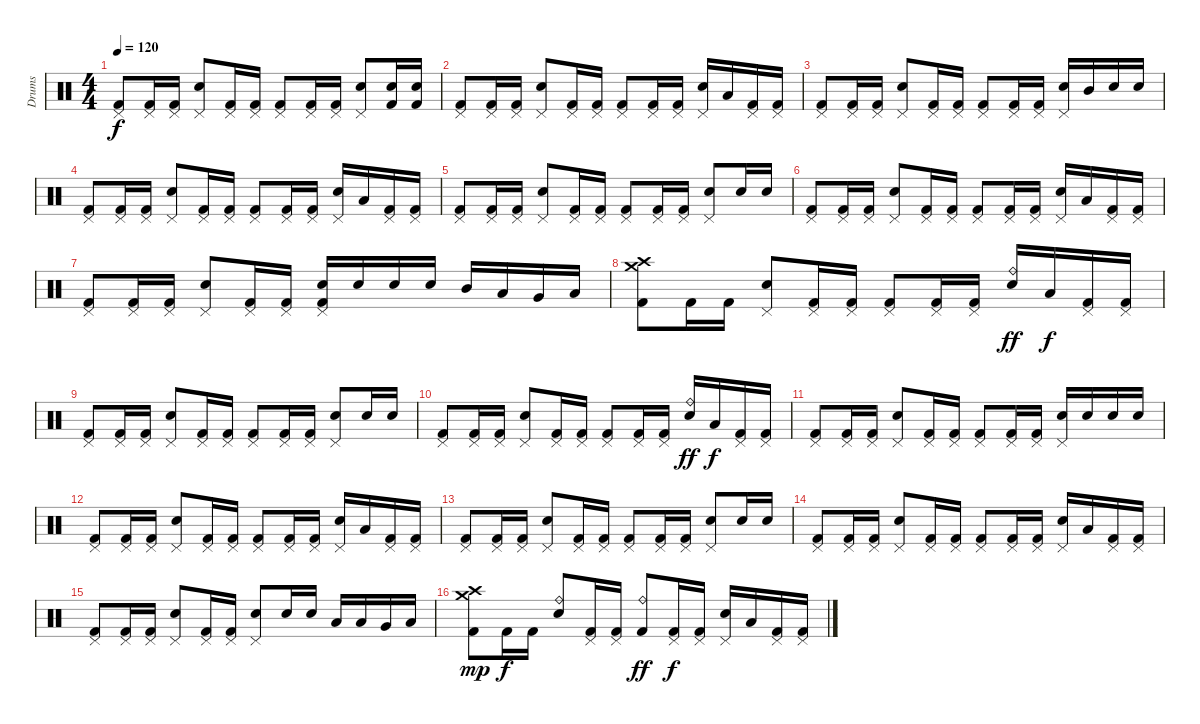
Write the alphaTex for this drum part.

\track ("Drums" "Drums") {instrument percussion}
\staff {score}
\articulation defaults
\ts (4 4)
\tempo 120
\clef neutral
\ks c
("Pedal Hi-Hat (hit)" "Kick (hit) 2").8{dy f} ("Pedal Hi-Hat (hit)" "Kick (hit) 2").16 ("Pedal Hi-Hat (hit)" "Kick (hit) 2").16 ("Pedal Hi-Hat (hit)" "Electric Snare (hit)").8 ("Pedal Hi-Hat (hit)" "Kick (hit) 2").16 ("Pedal Hi-Hat (hit)" "Kick (hit) 2").16 ("Pedal Hi-Hat (hit)" "Kick (hit) 2").8 ("Pedal Hi-Hat (hit)" "Kick (hit) 2").16 ("Pedal Hi-Hat (hit)" "Kick (hit) 2").16 ("Pedal Hi-Hat (hit)" "Electric Snare (hit)").8 ("Electric Snare (hit)" "Kick (hit) 2").16 ("Electric Snare (hit)" "Kick (hit) 2").16 |
("Pedal Hi-Hat (hit)" "Kick (hit) 2").8 ("Pedal Hi-Hat (hit)" "Kick (hit) 2").16 ("Pedal Hi-Hat (hit)" "Kick (hit) 2").16 ("Pedal Hi-Hat (hit)" "Electric Snare (hit)").8 ("Pedal Hi-Hat (hit)" "Kick (hit) 2").16 ("Pedal Hi-Hat (hit)" "Kick (hit) 2").16 ("Pedal Hi-Hat (hit)" "Kick (hit) 2").8 ("Pedal Hi-Hat (hit)" "Kick (hit) 2").16 ("Pedal Hi-Hat (hit)" "Kick (hit) 2").16 ("Pedal Hi-Hat (hit)" "Electric Snare (hit)").16 "Low Tom (hit)".16 ("Pedal Hi-Hat (hit)" "Kick (hit) 2").16 ("Pedal Hi-Hat (hit)" "Kick (hit) 2").16 |
("Pedal Hi-Hat (hit)" "Kick (hit) 2").8 ("Pedal Hi-Hat (hit)" "Kick (hit) 2").16 ("Pedal Hi-Hat (hit)" "Kick (hit) 2").16 ("Pedal Hi-Hat (hit)" "Electric Snare (hit)").8 ("Pedal Hi-Hat (hit)" "Kick (hit) 2").16 ("Pedal Hi-Hat (hit)" "Kick (hit) 2").16 ("Pedal Hi-Hat (hit)" "Kick (hit) 2").8 ("Pedal Hi-Hat (hit)" "Kick (hit) 2").16 ("Pedal Hi-Hat (hit)" "Kick (hit) 2").16 ("Pedal Hi-Hat (hit)" "Electric Snare (hit)").16 "Mid Tom (hit)".16 "Electric Snare (hit)".16 "Electric Snare (hit)".16 |
("Pedal Hi-Hat (hit)" "Kick (hit) 2").8 ("Pedal Hi-Hat (hit)" "Kick (hit) 2").16 ("Pedal Hi-Hat (hit)" "Kick (hit) 2").16 ("Pedal Hi-Hat (hit)" "Electric Snare (hit)").8 ("Pedal Hi-Hat (hit)" "Kick (hit) 2").16 ("Pedal Hi-Hat (hit)" "Kick (hit) 2").16 ("Pedal Hi-Hat (hit)" "Kick (hit) 2").8 ("Pedal Hi-Hat (hit)" "Kick (hit) 2").16 ("Pedal Hi-Hat (hit)" "Kick (hit) 2").16 ("Pedal Hi-Hat (hit)" "Electric Snare (hit)").16 "Low Tom (hit)".16 ("Pedal Hi-Hat (hit)" "Kick (hit) 2").16 ("Pedal Hi-Hat (hit)" "Kick (hit) 2").16 |
("Pedal Hi-Hat (hit)" "Kick (hit) 2").8 ("Pedal Hi-Hat (hit)" "Kick (hit) 2").16 ("Pedal Hi-Hat (hit)" "Kick (hit) 2").16 ("Pedal Hi-Hat (hit)" "Electric Snare (hit)").8 ("Pedal Hi-Hat (hit)" "Kick (hit) 2").16 ("Pedal Hi-Hat (hit)" "Kick (hit) 2").16 ("Pedal Hi-Hat (hit)" "Kick (hit) 2").8 ("Pedal Hi-Hat (hit)" "Kick (hit) 2").16 ("Pedal Hi-Hat (hit)" "Kick (hit) 2").16 ("Pedal Hi-Hat (hit)" "Electric Snare (hit)").8 "Electric Snare (hit)".16 "Electric Snare (hit)".16 |
("Pedal Hi-Hat (hit)" "Kick (hit) 2").8 ("Pedal Hi-Hat (hit)" "Kick (hit) 2").16 ("Pedal Hi-Hat (hit)" "Kick (hit) 2").16 ("Pedal Hi-Hat (hit)" "Electric Snare (hit)").8 ("Pedal Hi-Hat (hit)" "Kick (hit) 2").16 ("Pedal Hi-Hat (hit)" "Kick (hit) 2").16 ("Pedal Hi-Hat (hit)" "Kick (hit) 2").8 ("Pedal Hi-Hat (hit)" "Kick (hit) 2").16 ("Pedal Hi-Hat (hit)" "Kick (hit) 2").16 ("Pedal Hi-Hat (hit)" "Electric Snare (hit)").16 "Low Tom (hit)".16 ("Pedal Hi-Hat (hit)" "Kick (hit) 2").16 ("Pedal Hi-Hat (hit)" "Kick (hit) 2").16 |
("Pedal Hi-Hat (hit)" "Kick (hit) 2").8 ("Pedal Hi-Hat (hit)" "Kick (hit) 2").16 ("Pedal Hi-Hat (hit)" "Kick (hit) 2").16 ("Pedal Hi-Hat (hit)" "Electric Snare (hit)").8 ("Pedal Hi-Hat (hit)" "Kick (hit) 2").16 ("Pedal Hi-Hat (hit)" "Kick (hit) 2").16 ("Pedal Hi-Hat (hit)" "Electric Snare (hit)" "Kick (hit) 2").16 "Electric Snare (hit)".16 "Electric Snare (hit)".16 "Electric Snare (hit)".16 "Mid Tom (hit)".16 "Low Tom (hit)".16 "Very Low Tom (hit)".16 "Low Floor Tom (hit)".16 |
("Crash medium (hit)" "Crash high (hit)" "Kick (hit) 2").8 "Kick (hit) 2".16 "Kick (hit) 2".16 ("Pedal Hi-Hat (hit)" "Electric Snare (hit)").8 ("Pedal Hi-Hat (hit)" "Kick (hit) 2").16 ("Pedal Hi-Hat (hit)" "Kick (hit) 2").16 ("Pedal Hi-Hat (hit)" "Kick (hit) 2").8 ("Pedal Hi-Hat (hit)" "Kick (hit) 2").16 ("Pedal Hi-Hat (hit)" "Kick (hit) 2").16 ("Ride (bell)" "Electric Snare (hit)").16{dy ff} "Low Tom (hit)".16{dy f} ("Pedal Hi-Hat (hit)" "Kick (hit) 2").16 ("Pedal Hi-Hat (hit)" "Kick (hit) 2").16 |
("Pedal Hi-Hat (hit)" "Kick (hit) 2").8 ("Pedal Hi-Hat (hit)" "Kick (hit) 2").16 ("Pedal Hi-Hat (hit)" "Kick (hit) 2").16 ("Pedal Hi-Hat (hit)" "Electric Snare (hit)").8 ("Pedal Hi-Hat (hit)" "Kick (hit) 2").16 ("Pedal Hi-Hat (hit)" "Kick (hit) 2").16 ("Pedal Hi-Hat (hit)" "Kick (hit) 2").8 ("Pedal Hi-Hat (hit)" "Kick (hit) 2").16 ("Pedal Hi-Hat (hit)" "Kick (hit) 2").16 ("Pedal Hi-Hat (hit)" "Electric Snare (hit)").8 "Electric Snare (hit)".16 "Electric Snare (hit)".16 |
("Pedal Hi-Hat (hit)" "Kick (hit) 2").8 ("Pedal Hi-Hat (hit)" "Kick (hit) 2").16 ("Pedal Hi-Hat (hit)" "Kick (hit) 2").16 ("Pedal Hi-Hat (hit)" "Electric Snare (hit)").8 ("Pedal Hi-Hat (hit)" "Kick (hit) 2").16 ("Pedal Hi-Hat (hit)" "Kick (hit) 2").16 ("Pedal Hi-Hat (hit)" "Kick (hit) 2").8 ("Pedal Hi-Hat (hit)" "Kick (hit) 2").16 ("Pedal Hi-Hat (hit)" "Kick (hit) 2").16 ("Ride (bell)" "Electric Snare (hit)").16{dy ff} "Low Tom (hit)".16{dy f} ("Pedal Hi-Hat (hit)" "Kick (hit) 2").16 ("Pedal Hi-Hat (hit)" "Kick (hit) 2").16 |
("Pedal Hi-Hat (hit)" "Kick (hit) 2").8 ("Pedal Hi-Hat (hit)" "Kick (hit) 2").16 ("Pedal Hi-Hat (hit)" "Kick (hit) 2").16 ("Pedal Hi-Hat (hit)" "Electric Snare (hit)").8 ("Pedal Hi-Hat (hit)" "Kick (hit) 2").16 ("Pedal Hi-Hat (hit)" "Kick (hit) 2").16 ("Pedal Hi-Hat (hit)" "Kick (hit) 2").8 ("Pedal Hi-Hat (hit)" "Kick (hit) 2").16 ("Pedal Hi-Hat (hit)" "Kick (hit) 2").16 ("Pedal Hi-Hat (hit)" "Electric Snare (hit)").16 "Electric Snare (hit)".16 "Electric Snare (hit)".16 "Electric Snare (hit)".16 |
("Pedal Hi-Hat (hit)" "Kick (hit) 2").8 ("Pedal Hi-Hat (hit)" "Kick (hit) 2").16 ("Pedal Hi-Hat (hit)" "Kick (hit) 2").16 ("Pedal Hi-Hat (hit)" "Electric Snare (hit)").8 ("Pedal Hi-Hat (hit)" "Kick (hit) 2").16 ("Pedal Hi-Hat (hit)" "Kick (hit) 2").16 ("Pedal Hi-Hat (hit)" "Kick (hit) 2").8 ("Pedal Hi-Hat (hit)" "Kick (hit) 2").16 ("Pedal Hi-Hat (hit)" "Kick (hit) 2").16 ("Pedal Hi-Hat (hit)" "Electric Snare (hit)").16 "Low Tom (hit)".16 ("Pedal Hi-Hat (hit)" "Kick (hit) 2").16 ("Pedal Hi-Hat (hit)" "Kick (hit) 2").16 |
("Pedal Hi-Hat (hit)" "Kick (hit) 2").8 ("Pedal Hi-Hat (hit)" "Kick (hit) 2").16 ("Pedal Hi-Hat (hit)" "Kick (hit) 2").16 ("Pedal Hi-Hat (hit)" "Electric Snare (hit)").8 ("Pedal Hi-Hat (hit)" "Kick (hit) 2").16 ("Pedal Hi-Hat (hit)" "Kick (hit) 2").16 ("Pedal Hi-Hat (hit)" "Kick (hit) 2").8 ("Pedal Hi-Hat (hit)" "Kick (hit) 2").16 ("Pedal Hi-Hat (hit)" "Kick (hit) 2").16 ("Pedal Hi-Hat (hit)" "Electric Snare (hit)").8 "Electric Snare (hit)".16 "Electric Snare (hit)".16 |
("Pedal Hi-Hat (hit)" "Kick (hit) 2").8 ("Pedal Hi-Hat (hit)" "Kick (hit) 2").16 ("Pedal Hi-Hat (hit)" "Kick (hit) 2").16 ("Pedal Hi-Hat (hit)" "Electric Snare (hit)").8 ("Pedal Hi-Hat (hit)" "Kick (hit) 2").16 ("Pedal Hi-Hat (hit)" "Kick (hit) 2").16 ("Pedal Hi-Hat (hit)" "Kick (hit) 2").8 ("Pedal Hi-Hat (hit)" "Kick (hit) 2").16 ("Pedal Hi-Hat (hit)" "Kick (hit) 2").16 ("Pedal Hi-Hat (hit)" "Electric Snare (hit)").16 "Low Tom (hit)".16 ("Pedal Hi-Hat (hit)" "Kick (hit) 2").16 ("Pedal Hi-Hat (hit)" "Kick (hit) 2").16 |
("Pedal Hi-Hat (hit)" "Kick (hit) 2").8 ("Pedal Hi-Hat (hit)" "Kick (hit) 2").16 ("Pedal Hi-Hat (hit)" "Kick (hit) 2").16 ("Pedal Hi-Hat (hit)" "Electric Snare (hit)").8 ("Pedal Hi-Hat (hit)" "Kick (hit) 2").16 ("Pedal Hi-Hat (hit)" "Kick (hit) 2").16 ("Pedal Hi-Hat (hit)" "Electric Snare (hit)").8 "Electric Snare (hit)".16 "Electric Snare (hit)".16 "Low Tom (hit)".16 "Low Tom (hit)".16 "Very Low Tom (hit)".16 "Low Floor Tom (hit)".16 |
("Crash medium (hit)" "Crash high (hit)" "Kick (hit) 2").8{dy mp} "Kick (hit) 2".16{dy f} "Kick (hit) 2".16 ("Ride (bell)" "Electric Snare (hit)").8 ("Pedal Hi-Hat (hit)" "Kick (hit) 2").16 ("Pedal Hi-Hat (hit)" "Kick (hit) 2").16 ("Ride (bell)" "Kick (hit) 2").8{dy ff} ("Pedal Hi-Hat (hit)" "Kick (hit) 2").16{dy f} ("Pedal Hi-Hat (hit)" "Kick (hit) 2").16 ("Pedal Hi-Hat (hit)" "Electric Snare (hit)").16 "Low Tom (hit)".16 ("Pedal Hi-Hat (hit)" "Kick (hit) 2").16 ("Pedal Hi-Hat (hit)" "Kick (hit) 2").16
